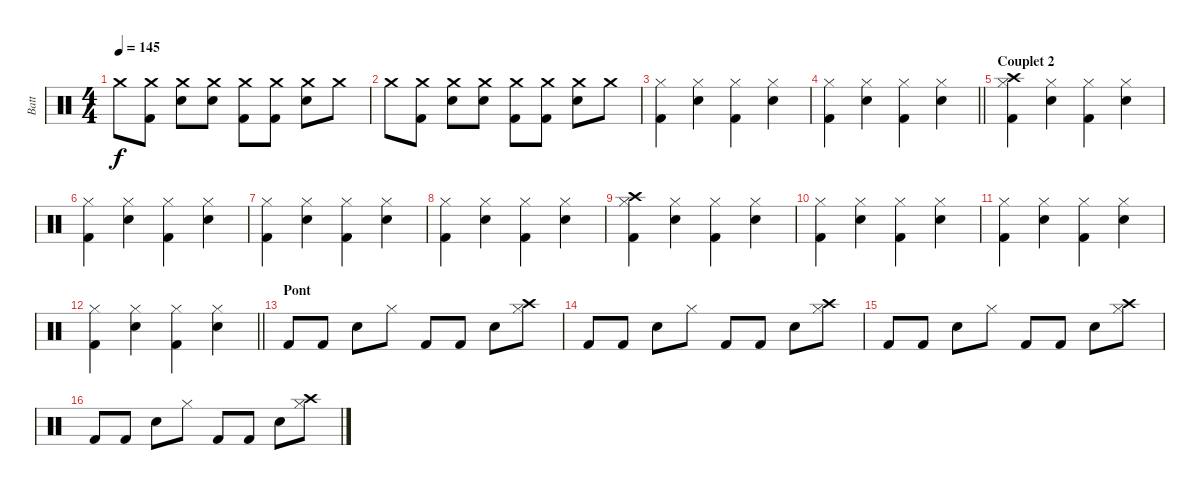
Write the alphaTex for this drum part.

\track ("Batt" "Batt") {instrument percussion}
\staff {score}
\articulation defaults
\ts (4 4)
\tempo 145
\clef neutral
\ks c "Crash medium (hit)".8{dy f}
("Crash medium (hit)" "Kick (hit) 2").8 ("Crash medium (hit)" "Snare (hit) 2").8 ("Crash medium (hit)" "Snare (hit) 2").8 ("Crash medium (hit)" "Kick (hit) 2").8 ("Crash medium (hit)" "Kick (hit) 2").8 ("Crash medium (hit)" "Snare (hit) 2").8 "Crash medium (hit)".8 |
"Crash medium (hit)".8 ("Crash medium (hit)" "Kick (hit) 2").8 ("Crash medium (hit)" "Snare (hit) 2").8 ("Crash medium (hit)" "Snare (hit) 2").8 ("Crash medium (hit)" "Kick (hit) 2").8 ("Crash medium (hit)" "Kick (hit) 2").8 ("Crash medium (hit)" "Snare (hit) 2").8 "Crash medium (hit)".8 |
("Hi-Hat (closed)" "Kick (hit) 2").4 ("Hi-Hat (closed)" "Snare (hit) 2").4 ("Hi-Hat (closed)" "Kick (hit) 2").4 ("Hi-Hat (closed)" "Snare (hit) 2").4 |
\barLineRight lightlight
("Hi-Hat (closed)" "Kick (hit) 2").4 ("Hi-Hat (closed)" "Snare (hit) 2").4 ("Hi-Hat (closed)" "Kick (hit) 2").4 ("Hi-Hat (closed)" "Snare (hit) 2").4 |
\section ("" "Couplet 2")
("Crash high (hit)" "Hi-Hat (closed)" "Kick (hit) 2").4 ("Hi-Hat (closed)" "Snare (hit) 2").4 ("Hi-Hat (closed)" "Kick (hit) 2").4 ("Hi-Hat (closed)" "Snare (hit) 2").4 |
("Hi-Hat (closed)" "Kick (hit) 2").4 ("Hi-Hat (closed)" "Snare (hit) 2").4 ("Hi-Hat (closed)" "Kick (hit) 2").4 ("Hi-Hat (closed)" "Snare (hit) 2").4 |
("Hi-Hat (closed)" "Kick (hit) 2").4 ("Hi-Hat (closed)" "Snare (hit) 2").4 ("Hi-Hat (closed)" "Kick (hit) 2").4 ("Hi-Hat (closed)" "Snare (hit) 2").4 |
("Hi-Hat (closed)" "Kick (hit) 2").4 ("Hi-Hat (closed)" "Snare (hit) 2").4 ("Hi-Hat (closed)" "Kick (hit) 2").4 ("Hi-Hat (closed)" "Snare (hit) 2").4 |
("Crash high (hit)" "Hi-Hat (closed)" "Kick (hit) 2").4 ("Hi-Hat (closed)" "Snare (hit) 2").4 ("Hi-Hat (closed)" "Kick (hit) 2").4 ("Hi-Hat (closed)" "Snare (hit) 2").4 |
("Hi-Hat (closed)" "Kick (hit) 2").4 ("Hi-Hat (closed)" "Snare (hit) 2").4 ("Hi-Hat (closed)" "Kick (hit) 2").4 ("Hi-Hat (closed)" "Snare (hit) 2").4 |
("Hi-Hat (closed)" "Kick (hit) 2").4 ("Hi-Hat (closed)" "Snare (hit) 2").4 ("Hi-Hat (closed)" "Kick (hit) 2").4 ("Hi-Hat (closed)" "Snare (hit) 2").4 |
\barLineRight lightlight
("Hi-Hat (closed)" "Kick (hit) 2").4 ("Hi-Hat (closed)" "Snare (hit) 2").4 ("Hi-Hat (closed)" "Kick (hit) 2").4 ("Hi-Hat (closed)" "Snare (hit) 2").4 |
\section ("" "Pont")
"Kick (hit) 2".8 "Kick (hit) 2".8 "Snare (hit) 2".8 "Hi-Hat (closed)".8 "Kick (hit) 2".8 "Kick (hit) 2".8 "Snare (hit) 2".8 ("Crash high (hit)" "Hi-Hat (closed)").8 |
"Kick (hit) 2".8 "Kick (hit) 2".8 "Snare (hit) 2".8 "Hi-Hat (closed)".8 "Kick (hit) 2".8 "Kick (hit) 2".8 "Snare (hit) 2".8 ("Crash high (hit)" "Hi-Hat (closed)").8 |
"Kick (hit) 2".8 "Kick (hit) 2".8 "Snare (hit) 2".8 "Hi-Hat (closed)".8 "Kick (hit) 2".8 "Kick (hit) 2".8 "Snare (hit) 2".8 ("Crash high (hit)" "Hi-Hat (closed)").8 |
"Kick (hit) 2".8 "Kick (hit) 2".8 "Snare (hit) 2".8 "Hi-Hat (closed)".8 "Kick (hit) 2".8 "Kick (hit) 2".8 "Snare (hit) 2".8 ("Crash high (hit)" "Hi-Hat (closed)").8
